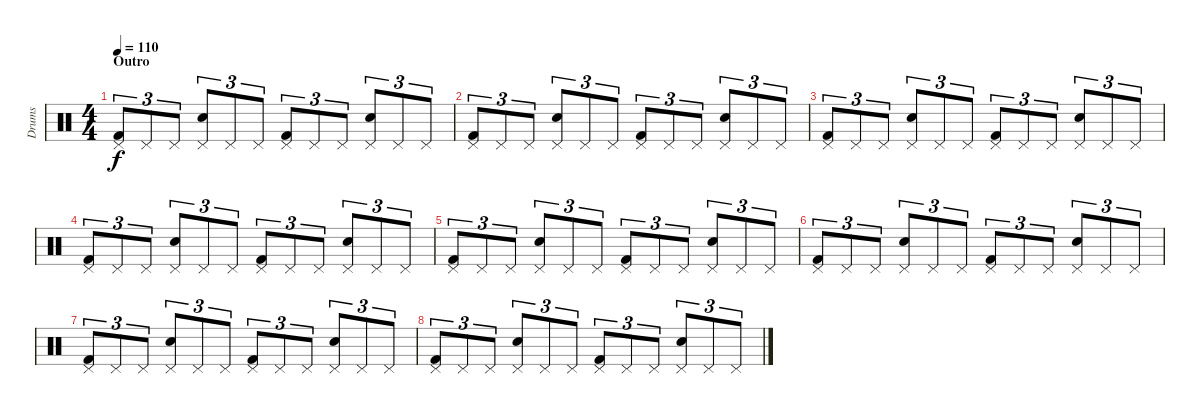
\track ("Drums" "Drums") {instrument percussion}
\staff {score}
\articulation defaults
\ts (4 4)
\section ("" "Outro")
\tempo 110
\clef neutral
\ks c
("Pedal Hi-Hat (hit)" "Kick (hit) 2").8{tu (3 2) dy f} "Pedal Hi-Hat (hit)".8{tu (3 2)} "Pedal Hi-Hat (hit)".8{tu (3 2)} ("Pedal Hi-Hat (hit)" "Electric Snare (hit)").8{tu (3 2)} "Pedal Hi-Hat (hit)".8{tu (3 2)} "Pedal Hi-Hat (hit)".8{tu (3 2)} ("Pedal Hi-Hat (hit)" "Kick (hit) 2").8{tu (3 2)} "Pedal Hi-Hat (hit)".8{tu (3 2)} "Pedal Hi-Hat (hit)".8{tu (3 2)} ("Pedal Hi-Hat (hit)" "Electric Snare (hit)").8{tu (3 2)} "Pedal Hi-Hat (hit)".8{tu (3 2)} "Pedal Hi-Hat (hit)".8{tu (3 2)} |
("Pedal Hi-Hat (hit)" "Kick (hit) 2").8{tu (3 2)} "Pedal Hi-Hat (hit)".8{tu (3 2)} "Pedal Hi-Hat (hit)".8{tu (3 2)} ("Pedal Hi-Hat (hit)" "Electric Snare (hit)").8{tu (3 2)} "Pedal Hi-Hat (hit)".8{tu (3 2)} "Pedal Hi-Hat (hit)".8{tu (3 2)} ("Pedal Hi-Hat (hit)" "Kick (hit) 2").8{tu (3 2)} "Pedal Hi-Hat (hit)".8{tu (3 2)} "Pedal Hi-Hat (hit)".8{tu (3 2)} ("Pedal Hi-Hat (hit)" "Electric Snare (hit)").8{tu (3 2)} "Pedal Hi-Hat (hit)".8{tu (3 2)} "Pedal Hi-Hat (hit)".8{tu (3 2)} |
("Pedal Hi-Hat (hit)" "Kick (hit) 2").8{tu (3 2)} "Pedal Hi-Hat (hit)".8{tu (3 2)} "Pedal Hi-Hat (hit)".8{tu (3 2)} ("Pedal Hi-Hat (hit)" "Electric Snare (hit)").8{tu (3 2)} "Pedal Hi-Hat (hit)".8{tu (3 2)} "Pedal Hi-Hat (hit)".8{tu (3 2)} ("Pedal Hi-Hat (hit)" "Kick (hit) 2").8{tu (3 2)} "Pedal Hi-Hat (hit)".8{tu (3 2)} "Pedal Hi-Hat (hit)".8{tu (3 2)} ("Pedal Hi-Hat (hit)" "Electric Snare (hit)").8{tu (3 2)} "Pedal Hi-Hat (hit)".8{tu (3 2)} "Pedal Hi-Hat (hit)".8{tu (3 2)} |
("Pedal Hi-Hat (hit)" "Kick (hit) 2").8{tu (3 2)} "Pedal Hi-Hat (hit)".8{tu (3 2)} "Pedal Hi-Hat (hit)".8{tu (3 2)} ("Pedal Hi-Hat (hit)" "Electric Snare (hit)").8{tu (3 2)} "Pedal Hi-Hat (hit)".8{tu (3 2)} "Pedal Hi-Hat (hit)".8{tu (3 2)} ("Pedal Hi-Hat (hit)" "Kick (hit) 2").8{tu (3 2)} "Pedal Hi-Hat (hit)".8{tu (3 2)} "Pedal Hi-Hat (hit)".8{tu (3 2)} ("Pedal Hi-Hat (hit)" "Electric Snare (hit)").8{tu (3 2)} "Pedal Hi-Hat (hit)".8{tu (3 2)} "Pedal Hi-Hat (hit)".8{tu (3 2)} |
("Pedal Hi-Hat (hit)" "Kick (hit) 2").8{tu (3 2)} "Pedal Hi-Hat (hit)".8{tu (3 2)} "Pedal Hi-Hat (hit)".8{tu (3 2)} ("Pedal Hi-Hat (hit)" "Electric Snare (hit)").8{tu (3 2)} "Pedal Hi-Hat (hit)".8{tu (3 2)} "Pedal Hi-Hat (hit)".8{tu (3 2)} ("Pedal Hi-Hat (hit)" "Kick (hit) 2").8{tu (3 2)} "Pedal Hi-Hat (hit)".8{tu (3 2)} "Pedal Hi-Hat (hit)".8{tu (3 2)} ("Pedal Hi-Hat (hit)" "Electric Snare (hit)").8{tu (3 2)} "Pedal Hi-Hat (hit)".8{tu (3 2)} "Pedal Hi-Hat (hit)".8{tu (3 2)} |
("Pedal Hi-Hat (hit)" "Kick (hit) 2").8{tu (3 2)} "Pedal Hi-Hat (hit)".8{tu (3 2)} "Pedal Hi-Hat (hit)".8{tu (3 2)} ("Pedal Hi-Hat (hit)" "Electric Snare (hit)").8{tu (3 2)} "Pedal Hi-Hat (hit)".8{tu (3 2)} "Pedal Hi-Hat (hit)".8{tu (3 2)} ("Pedal Hi-Hat (hit)" "Kick (hit) 2").8{tu (3 2)} "Pedal Hi-Hat (hit)".8{tu (3 2)} "Pedal Hi-Hat (hit)".8{tu (3 2)} ("Pedal Hi-Hat (hit)" "Electric Snare (hit)").8{tu (3 2)} "Pedal Hi-Hat (hit)".8{tu (3 2)} "Pedal Hi-Hat (hit)".8{tu (3 2)} |
("Pedal Hi-Hat (hit)" "Kick (hit) 2").8{tu (3 2)} "Pedal Hi-Hat (hit)".8{tu (3 2)} "Pedal Hi-Hat (hit)".8{tu (3 2)} ("Pedal Hi-Hat (hit)" "Electric Snare (hit)").8{tu (3 2)} "Pedal Hi-Hat (hit)".8{tu (3 2)} "Pedal Hi-Hat (hit)".8{tu (3 2)} ("Pedal Hi-Hat (hit)" "Kick (hit) 2").8{tu (3 2)} "Pedal Hi-Hat (hit)".8{tu (3 2)} "Pedal Hi-Hat (hit)".8{tu (3 2)} ("Pedal Hi-Hat (hit)" "Electric Snare (hit)").8{tu (3 2)} "Pedal Hi-Hat (hit)".8{tu (3 2)} "Pedal Hi-Hat (hit)".8{tu (3 2)} |
("Pedal Hi-Hat (hit)" "Kick (hit) 2").8{tu (3 2)} "Pedal Hi-Hat (hit)".8{tu (3 2)} "Pedal Hi-Hat (hit)".8{tu (3 2)} ("Pedal Hi-Hat (hit)" "Electric Snare (hit)").8{tu (3 2)} "Pedal Hi-Hat (hit)".8{tu (3 2)} "Pedal Hi-Hat (hit)".8{tu (3 2)} ("Pedal Hi-Hat (hit)" "Kick (hit) 2").8{tu (3 2)} "Pedal Hi-Hat (hit)".8{tu (3 2)} "Pedal Hi-Hat (hit)".8{tu (3 2)} ("Pedal Hi-Hat (hit)" "Electric Snare (hit)").8{tu (3 2)} "Pedal Hi-Hat (hit)".8{tu (3 2)} "Pedal Hi-Hat (hit)".8{tu (3 2)}
